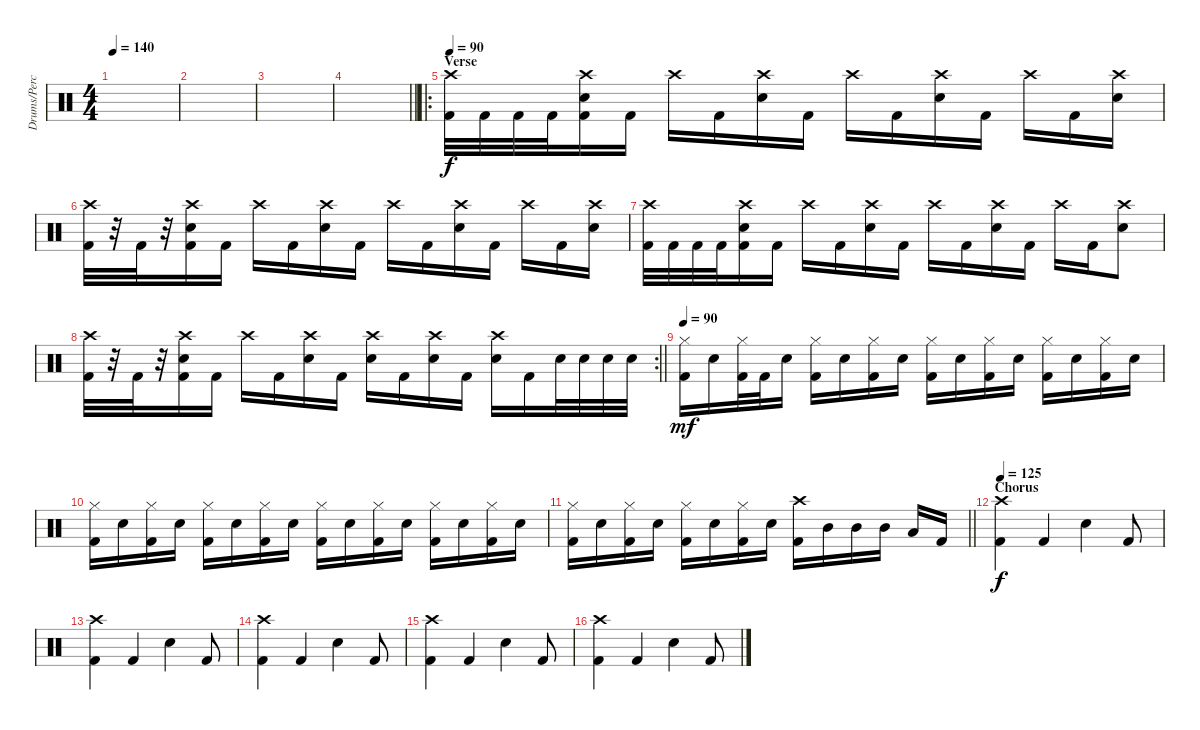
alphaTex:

\track ("Drums/Perc" "Drums/Perc") {instrument percussion}
\staff {score}
\articulation defaults
\ts (4 4)
\tempo 140
\clef neutral
\ks c
|
|
|
\barLineRight lightlight
|
\ro
\section ("" "Verse")
\tempo 90
("Crash high (hit)" "Kick (hit) 2").32 "Kick (hit) 2".32 "Kick (hit) 2".32 "Kick (hit) 2".32 ("Crash high (hit)" "Snare (hit) 2" "Kick (hit) 2").16 "Kick (hit) 2".16 "Crash high (hit)".16 "Kick (hit) 2".16 ("Crash high (hit)" "Snare (hit) 2").16 "Kick (hit) 2".16 "Crash high (hit)".16 "Kick (hit) 2".16 ("Crash high (hit)" "Snare (hit) 2").16 "Kick (hit) 2".16 "Crash high (hit)".16 "Kick (hit) 2".16 ("Crash high (hit)" "Snare (hit) 2").16 |
("Crash high (hit)" "Kick (hit) 2").32 r.32 "Kick (hit) 2".32 r.32 ("Crash high (hit)" "Snare (hit) 2" "Kick (hit) 2").16 "Kick (hit) 2".16 "Crash high (hit)".16 "Kick (hit) 2".16 ("Crash high (hit)" "Snare (hit) 2").16 "Kick (hit) 2".16 "Crash high (hit)".16 "Kick (hit) 2".16 ("Crash high (hit)" "Snare (hit) 2").16 "Kick (hit) 2".16 "Crash high (hit)".16 "Kick (hit) 2".16 ("Crash high (hit)" "Snare (hit) 2").16 |
("Crash high (hit)" "Kick (hit) 2").32 "Kick (hit) 2".32 "Kick (hit) 2".32 "Kick (hit) 2".32 ("Crash high (hit)" "Snare (hit) 2" "Kick (hit) 2").16 "Kick (hit) 2".16 "Crash high (hit)".16 "Kick (hit) 2".16 ("Crash high (hit)" "Snare (hit) 2").16 "Kick (hit) 2".16 "Crash high (hit)".16 "Kick (hit) 2".16 ("Crash high (hit)" "Snare (hit) 2").16 "Kick (hit) 2".16 "Crash high (hit)".16 "Kick (hit) 2".16 ("Crash high (hit)" "Snare (hit) 2").8 |
\rc 2
\barLineRight lightlight
("Crash high (hit)" "Kick (hit) 2").32 r.32 "Kick (hit) 2".32 r.32 ("Crash high (hit)" "Snare (hit) 2" "Kick (hit) 2").16 "Kick (hit) 2".16 "Crash high (hit)".16 "Kick (hit) 2".16 ("Crash high (hit)" "Snare (hit) 2").16 "Kick (hit) 2".16 ("Crash high (hit)" "Snare (hit) 2").16 "Kick (hit) 2".16 ("Crash high (hit)" "Snare (hit) 2").16 "Kick (hit) 2".16 ("Crash high (hit)" "Snare (hit) 2").16 "Kick (hit) 2".16 "Snare (hit) 2".32 "Snare (hit) 2".32 "Snare (hit) 2".32 "Snare (hit) 2".32 |
\section ("" "")
\tempo 90
("Hi-Hat (closed)" "Kick (hit) 2").16{dy mf} "Snare (hit) 2".16 ("Hi-Hat (closed)" "Kick (hit) 2").32 "Kick (hit) 2".32 "Snare (hit) 2".16 ("Hi-Hat (closed)" "Kick (hit) 2").16 "Snare (hit) 2".16 ("Hi-Hat (closed)" "Kick (hit) 2").16 "Snare (hit) 2".16 ("Hi-Hat (closed)" "Kick (hit) 2").16 "Snare (hit) 2".16 ("Hi-Hat (closed)" "Kick (hit) 2").16 "Snare (hit) 2".16 ("Hi-Hat (closed)" "Kick (hit) 2").16 "Snare (hit) 2".16 ("Hi-Hat (closed)" "Kick (hit) 2").16 "Snare (hit) 2".16 |
("Hi-Hat (closed)" "Kick (hit) 2").16 "Snare (hit) 2".16 ("Hi-Hat (closed)" "Kick (hit) 2").16 "Snare (hit) 2".16 ("Hi-Hat (closed)" "Kick (hit) 2").16 "Snare (hit) 2".16 ("Hi-Hat (closed)" "Kick (hit) 2").16 "Snare (hit) 2".16 ("Hi-Hat (closed)" "Kick (hit) 2").16 "Snare (hit) 2".16 ("Hi-Hat (closed)" "Kick (hit) 2").16 "Snare (hit) 2".16 ("Hi-Hat (closed)" "Kick (hit) 2").16 "Snare (hit) 2".16 ("Hi-Hat (closed)" "Kick (hit) 2").16 "Snare (hit) 2".16 |
\barLineRight lightlight
("Hi-Hat (closed)" "Kick (hit) 2").16 "Snare (hit) 2".16 ("Hi-Hat (closed)" "Kick (hit) 2").16 "Snare (hit) 2".16 ("Hi-Hat (closed)" "Kick (hit) 2").16 "Snare (hit) 2".16 ("Hi-Hat (closed)" "Kick (hit) 2").16 "Snare (hit) 2".16 ("Crash high (hit)" "Kick (hit) 2").16 "Mid Tom (hit)".16 "Mid Tom (hit)".16 "Mid Tom (hit)".16 "Low Tom (hit)".16 "Kick (hit) 2".16 |
\section ("" "Chorus")
\tempo 125
("Crash high (hit)" "Kick (hit) 2").4{dy f} "Kick (hit) 2".4 "Snare (hit) 2".4 "Kick (hit) 2".8 |
("Crash high (hit)" "Kick (hit) 2").4 "Kick (hit) 2".4 "Snare (hit) 2".4 "Kick (hit) 2".8 |
("Crash high (hit)" "Kick (hit) 2").4 "Kick (hit) 2".4 "Snare (hit) 2".4 "Kick (hit) 2".8 |
("Crash high (hit)" "Kick (hit) 2").4 "Kick (hit) 2".4 "Snare (hit) 2".4 "Kick (hit) 2".8 |
("Crash high (hit)" "Kick (hit) 2").4 "Kick (hit) 2".4 "Snare (hit) 2".4 "Kick (hit) 2".8
